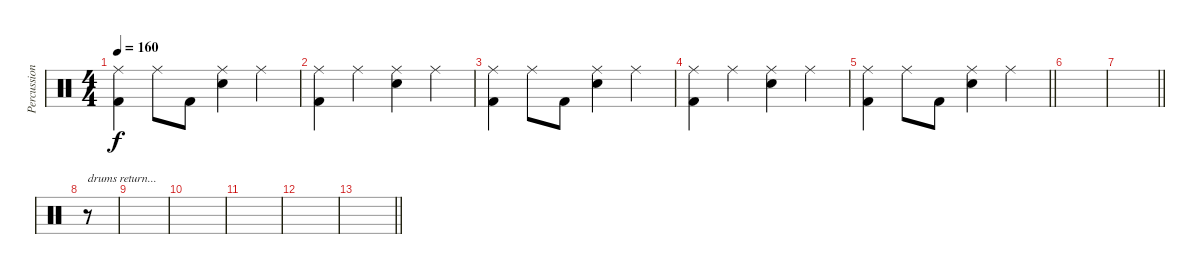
\track ("Percussion" "Percussion") {solo instrument percussion}
\staff {score}
\articulation defaults
\ts (4 4)
\tempo 160
\clef neutral
\ks c
("Ride (middle)" "Kick (hit) 2").4{dy f} "Ride (middle)".8 "Kick (hit) 2".8 ("Ride (middle)" "Snare (hit) 2").4 "Ride (middle)".4 |
("Ride (middle)" "Kick (hit) 2").4 "Ride (middle)".4 ("Ride (middle)" "Snare (hit) 2").4 "Ride (middle)".4 |
("Ride (middle)" "Kick (hit) 2").4 "Ride (middle)".8 "Kick (hit) 2".8 ("Ride (middle)" "Snare (hit) 2").4 "Ride (middle)".4 |
("Ride (middle)" "Kick (hit) 2").4 "Ride (middle)".4 ("Ride (middle)" "Snare (hit) 2").4 "Ride (middle)".4 |
\barLineRight lightlight
("Ride (middle)" "Kick (hit) 2").4 "Ride (middle)".8 "Kick (hit) 2".8 ("Ride (middle)" "Snare (hit) 2").4 "Ride (middle)".4 |
|
\barLineRight lightlight
|
r.8{txt "drums return..."} |
|
|
|
|
\barLineRight lightlight
